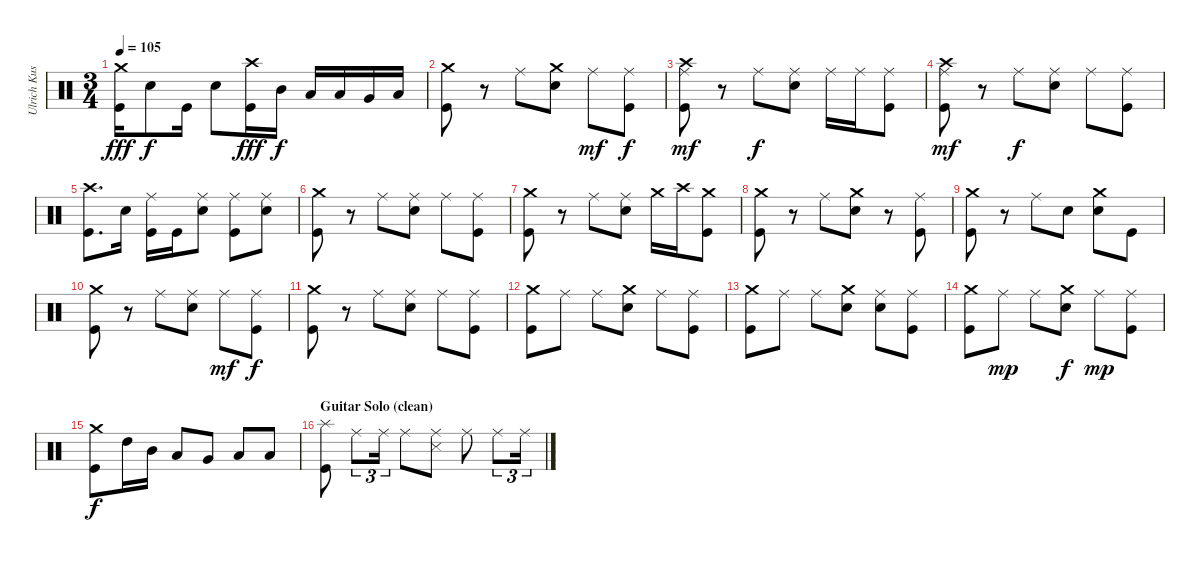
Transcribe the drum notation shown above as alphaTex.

\track ("Ulrich Kusch" "Ulrich Kus") {instrument percussion}
\staff {score}
\articulation defaults
\ts (3 4)
\tempo 105
\clef neutral
\ks c
("Crash medium (hit)" "Kick (hit)").16{dy fff} "Electric Snare (hit)".8{dy f} "Kick (hit)".16 "Electric Snare (hit)".8 ("Crash high (hit)" "Kick (hit)").16{dy fff} "Mid Tom (hit)".16{dy f} "Low Tom (hit)".16 "Low Tom (hit)".16 "Very Low Tom (hit)".16 "Low Floor Tom (hit)".16 |
("Crash medium (hit)" "Kick (hit)").8 r.8 "Ride (middle)".8 ("Crash medium (hit)" "Electric Snare (hit)").8 "Ride (middle)".8{dy mf} ("Ride (middle)" "Kick (hit)").8{dy f} |
("Ride (middle)" "Crash high (hit)" "Kick (hit)").8{dy mf} r.8 "Ride (middle)".8{dy f} ("Ride (middle)" "Electric Snare (hit)").8 "Ride (middle)".16 "Ride (middle)".16 ("Ride (middle)" "Kick (hit)").8 |
("Ride (middle)" "Crash high (hit)" "Kick (hit)").8{dy mf} r.8 "Ride (middle)".8{dy f} ("Ride (middle)" "Electric Snare (hit)").8 "Ride (middle)".8 ("Ride (middle)" "Kick (hit)").8 |
("Crash high (hit)" "Kick (hit)").8{d} "Electric Snare (hit)".16 ("Ride (middle)" "Kick (hit)").16 "Kick (hit)".16 ("Ride (middle)" "Electric Snare (hit)").8 ("Ride (middle)" "Kick (hit)").8 ("Ride (middle)" "Electric Snare (hit)").8 |
("Crash medium (hit)" "Kick (hit)").8 r.8 "Ride (middle)".8 ("Ride (middle)" "Electric Snare (hit)").8 "Ride (middle)".8 ("Ride (middle)" "Kick (hit)").8 |
("Crash medium (hit)" "Kick (hit)").8 r.8 "Ride (middle)".8 ("Ride (middle)" "Electric Snare (hit)").8 "Crash medium (hit)".16 "Crash high (hit)".16 ("Crash medium (hit)" "Kick (hit)").8 |
("Crash medium (hit)" "Kick (hit)").8 r.8 "Ride (middle)".8 ("Crash medium (hit)" "Electric Snare (hit)").8 r.8 ("Ride (middle)" "Kick (hit)").8 |
("Crash medium (hit)" "Kick (hit)").8 r.8 "Ride (middle)".8 "Electric Snare (hit)".8 ("Crash medium (hit)" "Electric Snare (hit)").8 "Kick (hit)".8 |
("Crash medium (hit)" "Kick (hit)").8 r.8 "Ride (middle)".8 ("Ride (middle)" "Electric Snare (hit)").8 "Ride (middle)".8{dy mf} ("Ride (middle)" "Kick (hit)").8{dy f} |
("Crash medium (hit)" "Kick (hit)").8 r.8 "Ride (middle)".8 ("Ride (middle)" "Electric Snare (hit)").8 "Ride (middle)".8 ("Ride (middle)" "Kick (hit)").8 |
("Crash medium (hit)" "Kick (hit)").8 "Ride (middle)".8 "Ride (middle)".8 ("Crash medium (hit)" "Electric Snare (hit)").8 "Ride (middle)".8 ("Ride (middle)" "Kick (hit)").8 |
("Crash medium (hit)" "Kick (hit)").8 "Ride (middle)".8 "Ride (middle)".8 ("Crash medium (hit)" "Electric Snare (hit)").8 ("Ride (middle)" "Electric Snare (hit)").8 ("Ride (middle)" "Kick (hit)").8 |
("Crash medium (hit)" "Kick (hit)").8 "Ride (middle)".8{dy mp} "Ride (middle)".8 ("Crash medium (hit)" "Electric Snare (hit)").8{dy f} "Ride (middle)".8{dy mp} ("Ride (middle)" "Kick (hit)").8 |
("Crash medium (hit)" "Kick (hit)").8{dy f} "High Tom (hit)".16 "Mid Tom (hit)".16 "Low Tom (hit)".8 "Very Low Tom (hit)".8 "Low Floor Tom (hit)".8 "Low Floor Tom (hit)".8 |
\section ("" "Guitar Solo (clean)")
("Splash (hit)" "Kick (hit)").8 "Ride (middle)".8{tu (3 2)} "Ride (middle)".16{tu (3 2)} "Ride (middle)".8 ("Ride (middle)" "Snare (side stick) 3").8 "Ride (middle)".8 "Ride (middle)".8{tu (3 2)} "Ride (middle)".16{tu (3 2)}
